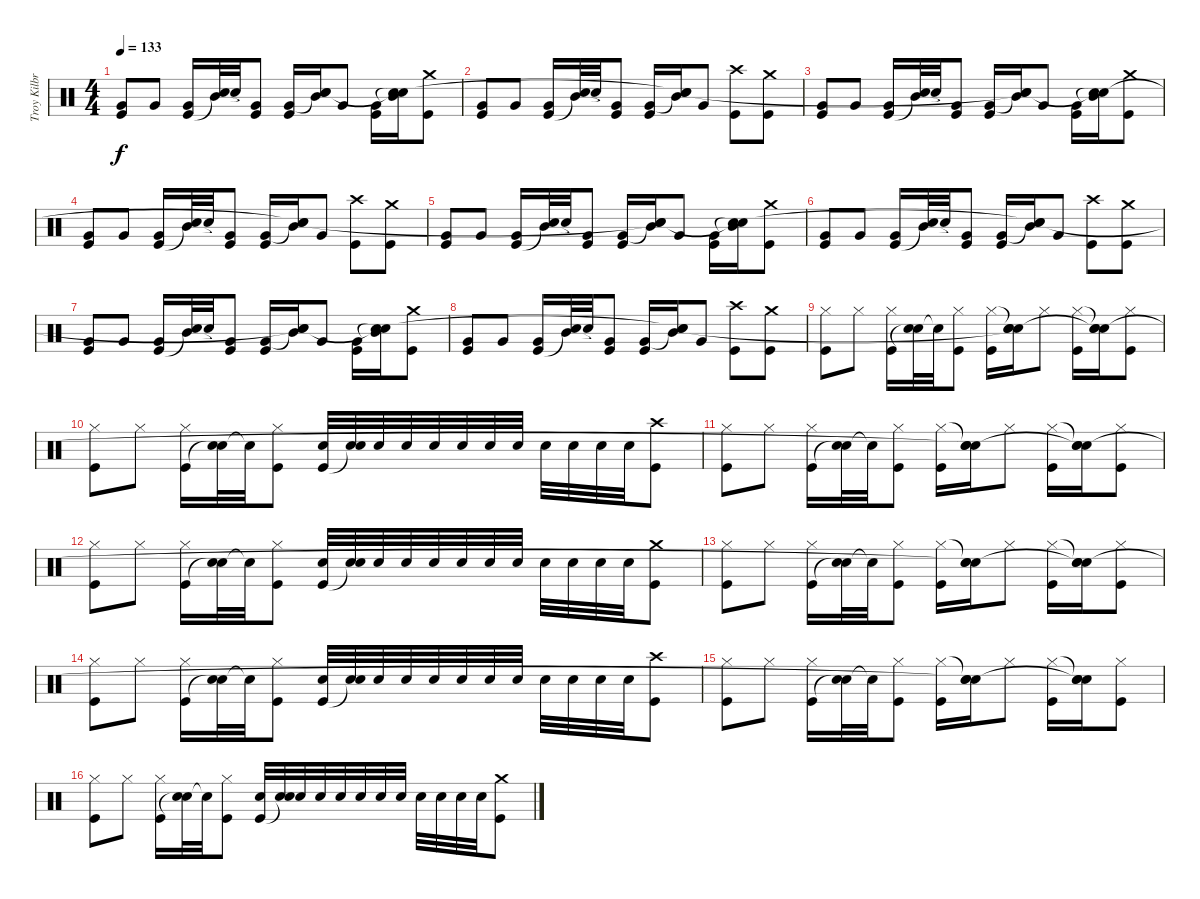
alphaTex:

\track ("Troy Kilbride" "Troy Kilbr") {instrument percussion}
\staff {score}
\articulation defaults
\ts (4 4)
\tempo 133
\clef neutral
\ks c
("Very Low Tom (hit)" "Kick (hit)").8{dy f} "Very Low Tom (hit)".8 ("Very Low Tom (hit)" "Kick (hit)").16 ("Mid Tom (hit)" "Snare (hit)"{t}).32 "Snare (hit)"{t}.32 ("Very Low Tom (hit)" "Kick (hit)").8 ("Very Low Tom (hit)" "Kick (hit)").16 ("Snare (hit)"{t} "Mid Tom (hit)" "Snare (hit)"{t}).16 "Very Low Tom (hit)".8 ("Very Low Tom (hit)" "Kick (hit)").16 ("Snare (hit)"{t} "Mid Tom (hit)" "Snare (hit)"{t}).16 ("Crash medium (hit)" "Kick (hit)").8 |
("Very Low Tom (hit)" "Kick (hit)").8 "Very Low Tom (hit)".8 ("Very Low Tom (hit)" "Kick (hit)").16 ("Mid Tom (hit)" "Snare (hit)"{t}).32 "Snare (hit)"{t}.32 ("Very Low Tom (hit)" "Kick (hit)").8 ("Very Low Tom (hit)" "Kick (hit)").16 ("Snare (hit)"{t} "Mid Tom (hit)" "Snare (hit)"{t}).16 "Very Low Tom (hit)".8 ("Crash high (hit)" "Kick (hit)").8 ("Crash medium (hit)" "Kick (hit)").8 |
("Very Low Tom (hit)" "Kick (hit)").8 "Very Low Tom (hit)".8 ("Very Low Tom (hit)" "Kick (hit)").16 ("Mid Tom (hit)" "Snare (hit)"{t}).32 "Snare (hit)"{t}.32 ("Very Low Tom (hit)" "Kick (hit)").8 ("Very Low Tom (hit)" "Kick (hit)").16 ("Snare (hit)"{t} "Mid Tom (hit)" "Snare (hit)"{t}).16 "Very Low Tom (hit)".8 ("Very Low Tom (hit)" "Kick (hit)").16 ("Snare (hit)"{t} "Mid Tom (hit)" "Snare (hit)"{t}).16 ("Crash medium (hit)" "Kick (hit)").8 |
("Very Low Tom (hit)" "Kick (hit)").8 "Very Low Tom (hit)".8 ("Very Low Tom (hit)" "Kick (hit)").16 ("Mid Tom (hit)" "Snare (hit)"{t}).32 "Snare (hit)"{t}.32 ("Very Low Tom (hit)" "Kick (hit)").8 ("Very Low Tom (hit)" "Kick (hit)").16 ("Snare (hit)"{t} "Mid Tom (hit)" "Snare (hit)"{t}).16 "Very Low Tom (hit)".8 ("Crash high (hit)" "Kick (hit)").8 ("Crash medium (hit)" "Kick (hit)").8 |
("Very Low Tom (hit)" "Kick (hit)").8 "Very Low Tom (hit)".8 ("Very Low Tom (hit)" "Kick (hit)").16 ("Mid Tom (hit)" "Snare (hit)"{t}).32 "Snare (hit)"{t}.32 ("Very Low Tom (hit)" "Kick (hit)").8 ("Very Low Tom (hit)" "Kick (hit)").16 ("Snare (hit)"{t} "Mid Tom (hit)" "Snare (hit)"{t}).16 "Very Low Tom (hit)".8 ("Very Low Tom (hit)" "Kick (hit)").16 ("Snare (hit)"{t} "Mid Tom (hit)" "Snare (hit)"{t}).16 ("Crash medium (hit)" "Kick (hit)").8 |
("Very Low Tom (hit)" "Kick (hit)").8 "Very Low Tom (hit)".8 ("Very Low Tom (hit)" "Kick (hit)").16 ("Mid Tom (hit)" "Snare (hit)"{t}).32 "Snare (hit)"{t}.32 ("Very Low Tom (hit)" "Kick (hit)").8 ("Very Low Tom (hit)" "Kick (hit)").16 ("Snare (hit)"{t} "Mid Tom (hit)" "Snare (hit)"{t}).16 "Very Low Tom (hit)".8 ("Crash high (hit)" "Kick (hit)").8 ("Crash medium (hit)" "Kick (hit)").8 |
("Very Low Tom (hit)" "Kick (hit)").8 "Very Low Tom (hit)".8 ("Very Low Tom (hit)" "Kick (hit)").16 ("Mid Tom (hit)" "Snare (hit)"{t}).32 "Snare (hit)"{t}.32 ("Very Low Tom (hit)" "Kick (hit)").8 ("Very Low Tom (hit)" "Kick (hit)").16 ("Snare (hit)"{t} "Mid Tom (hit)" "Snare (hit)"{t}).16 "Very Low Tom (hit)".8 ("Very Low Tom (hit)" "Kick (hit)").16 ("Snare (hit)"{t} "Mid Tom (hit)" "Snare (hit)"{t}).16 ("Crash medium (hit)" "Kick (hit)").8 |
("Very Low Tom (hit)" "Kick (hit)").8 "Very Low Tom (hit)".8 ("Very Low Tom (hit)" "Kick (hit)").16 ("Mid Tom (hit)" "Snare (hit)"{t}).32 "Snare (hit)"{t}.32 ("Very Low Tom (hit)" "Kick (hit)").8 ("Very Low Tom (hit)" "Kick (hit)").16 ("Snare (hit)"{t} "Mid Tom (hit)" "Snare (hit)"{t}).16 "Very Low Tom (hit)".8 ("Crash high (hit)" "Kick (hit)").8 ("Crash medium (hit)" "Kick (hit)").8 |
("Hi-Hat (closed)" "Kick (hit)").8 "Hi-Hat (closed)".8 ("Hi-Hat (closed)" "Kick (hit)").16 ("Electric Snare (hit)" "Snare (hit)"{t}).32 "Snare (hit)"{t}.32 ("Hi-Hat (closed)" "Kick (hit)").8 ("Hi-Hat (closed)" "Kick (hit)").16 ("Snare (hit)"{t} "Electric Snare (hit)" "Snare (hit)"{t}).16 "Hi-Hat (closed)".8 ("Hi-Hat (closed)" "Kick (hit)").16 ("Snare (hit)"{t} "Electric Snare (hit)" "Snare (hit)"{t}).16 ("Hi-Hat (closed)" "Kick (hit)").8 |
("Hi-Hat (closed)" "Kick (hit)").8 "Hi-Hat (closed)".8 ("Hi-Hat (closed)" "Kick (hit)").16 ("Electric Snare (hit)" "Snare (hit)"{t}).32 "Snare (hit)"{t}.32 ("Hi-Hat (closed)" "Kick (hit)").8 ("Electric Snare (hit)" "Kick (hit)").32 ("Electric Snare (hit)" "Snare (hit)"{t}).32 "Electric Snare (hit)".32 "Electric Snare (hit)".32 "Electric Snare (hit)".32 "Electric Snare (hit)".32 "Electric Snare (hit)".32 "Electric Snare (hit)".32 "Electric Snare (hit)".32 "Electric Snare (hit)".32 "Electric Snare (hit)".32 "Electric Snare (hit)".32 ("Crash high (hit)" "Kick (hit)").8 |
("Hi-Hat (closed)" "Kick (hit)").8 "Hi-Hat (closed)".8 ("Hi-Hat (closed)" "Kick (hit)").16 ("Electric Snare (hit)" "Snare (hit)"{t}).32 "Snare (hit)"{t}.32 ("Hi-Hat (closed)" "Kick (hit)").8 ("Hi-Hat (closed)" "Kick (hit)").16 ("Snare (hit)"{t} "Electric Snare (hit)" "Snare (hit)"{t}).16 "Hi-Hat (closed)".8 ("Hi-Hat (closed)" "Kick (hit)").16 ("Snare (hit)"{t} "Electric Snare (hit)" "Snare (hit)"{t}).16 ("Hi-Hat (closed)" "Kick (hit)").8 |
("Hi-Hat (closed)" "Kick (hit)").8 "Hi-Hat (closed)".8 ("Hi-Hat (closed)" "Kick (hit)").16 ("Electric Snare (hit)" "Snare (hit)"{t}).32 "Snare (hit)"{t}.32 ("Hi-Hat (closed)" "Kick (hit)").8 ("Electric Snare (hit)" "Kick (hit)").32 ("Electric Snare (hit)" "Snare (hit)"{t}).32 "Electric Snare (hit)".32 "Electric Snare (hit)".32 "Electric Snare (hit)".32 "Electric Snare (hit)".32 "Electric Snare (hit)".32 "Electric Snare (hit)".32 "Electric Snare (hit)".32 "Electric Snare (hit)".32 "Electric Snare (hit)".32 "Electric Snare (hit)".32 ("Crash medium (hit)" "Kick (hit)").8 |
("Hi-Hat (closed)" "Kick (hit)").8 "Hi-Hat (closed)".8 ("Hi-Hat (closed)" "Kick (hit)").16 ("Electric Snare (hit)" "Snare (hit)"{t}).32 "Snare (hit)"{t}.32 ("Hi-Hat (closed)" "Kick (hit)").8 ("Hi-Hat (closed)" "Kick (hit)").16 ("Snare (hit)"{t} "Electric Snare (hit)" "Snare (hit)"{t}).16 "Hi-Hat (closed)".8 ("Hi-Hat (closed)" "Kick (hit)").16 ("Snare (hit)"{t} "Electric Snare (hit)" "Snare (hit)"{t}).16 ("Hi-Hat (closed)" "Kick (hit)").8 |
("Hi-Hat (closed)" "Kick (hit)").8 "Hi-Hat (closed)".8 ("Hi-Hat (closed)" "Kick (hit)").16 ("Electric Snare (hit)" "Snare (hit)"{t}).32 "Snare (hit)"{t}.32 ("Hi-Hat (closed)" "Kick (hit)").8 ("Electric Snare (hit)" "Kick (hit)").32 ("Electric Snare (hit)" "Snare (hit)"{t}).32 "Electric Snare (hit)".32 "Electric Snare (hit)".32 "Electric Snare (hit)".32 "Electric Snare (hit)".32 "Electric Snare (hit)".32 "Electric Snare (hit)".32 "Electric Snare (hit)".32 "Electric Snare (hit)".32 "Electric Snare (hit)".32 "Electric Snare (hit)".32 ("Crash high (hit)" "Kick (hit)").8 |
("Hi-Hat (closed)" "Kick (hit)").8 "Hi-Hat (closed)".8 ("Hi-Hat (closed)" "Kick (hit)").16 ("Electric Snare (hit)" "Snare (hit)"{t}).32 "Snare (hit)"{t}.32 ("Hi-Hat (closed)" "Kick (hit)").8 ("Hi-Hat (closed)" "Kick (hit)").16 ("Snare (hit)"{t} "Electric Snare (hit)" "Snare (hit)"{t}).16 "Hi-Hat (closed)".8 ("Hi-Hat (closed)" "Kick (hit)").16 ("Snare (hit)"{t} "Electric Snare (hit)" "Snare (hit)"{t}).16 ("Hi-Hat (closed)" "Kick (hit)").8 |
("Hi-Hat (closed)" "Kick (hit)").8 "Hi-Hat (closed)".8 ("Hi-Hat (closed)" "Kick (hit)").16 ("Electric Snare (hit)" "Snare (hit)"{t}).32 "Snare (hit)"{t}.32 ("Hi-Hat (closed)" "Kick (hit)").8 ("Electric Snare (hit)" "Kick (hit)").32 ("Electric Snare (hit)" "Snare (hit)"{t}).32 "Electric Snare (hit)".32 "Electric Snare (hit)".32 "Electric Snare (hit)".32 "Electric Snare (hit)".32 "Electric Snare (hit)".32 "Electric Snare (hit)".32 "Electric Snare (hit)".32 "Electric Snare (hit)".32 "Electric Snare (hit)".32 "Electric Snare (hit)".32 ("Crash medium (hit)" "Kick (hit)").8
